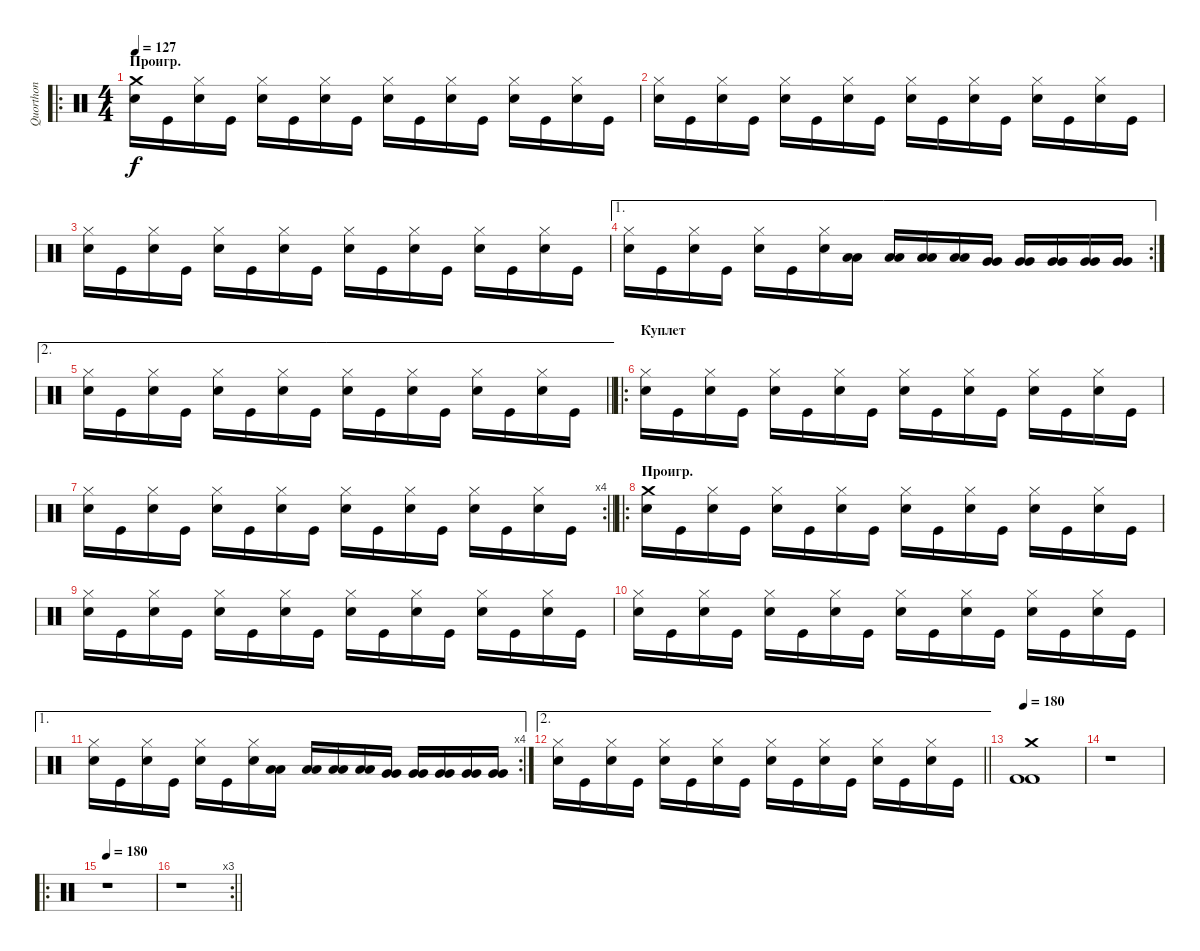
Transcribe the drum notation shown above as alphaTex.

\track ("Quorthon" "Quorthon") {instrument percussion}
\staff {score}
\articulation defaults
\ro
\ts (4 4)
\section ("" "Проигр.")
\tempo 127
\clef neutral
\ks c
("Crash medium (hit)" "Electric Snare (hit)").16{dy f} "Kick (hit)".16 ("Hi-Hat (closed)" "Electric Snare (hit)").16 "Kick (hit)".16 ("Hi-Hat (closed)" "Electric Snare (hit)").16 "Kick (hit)".16 ("Hi-Hat (closed)" "Electric Snare (hit)").16 "Kick (hit)".16 ("Hi-Hat (closed)" "Electric Snare (hit)").16 "Kick (hit)".16 ("Hi-Hat (closed)" "Electric Snare (hit)").16 "Kick (hit)".16 ("Hi-Hat (closed)" "Electric Snare (hit)").16 "Kick (hit)".16 ("Hi-Hat (closed)" "Electric Snare (hit)").16 "Kick (hit)".16 |
("Hi-Hat (closed)" "Electric Snare (hit)").16 "Kick (hit)".16 ("Hi-Hat (closed)" "Electric Snare (hit)").16 "Kick (hit)".16 ("Hi-Hat (closed)" "Electric Snare (hit)").16 "Kick (hit)".16 ("Hi-Hat (closed)" "Electric Snare (hit)").16 "Kick (hit)".16 ("Hi-Hat (closed)" "Electric Snare (hit)").16 "Kick (hit)".16 ("Hi-Hat (closed)" "Electric Snare (hit)").16 "Kick (hit)".16 ("Hi-Hat (closed)" "Electric Snare (hit)").16 "Kick (hit)".16 ("Hi-Hat (closed)" "Electric Snare (hit)").16 "Kick (hit)".16 |
("Hi-Hat (closed)" "Electric Snare (hit)").16 "Kick (hit)".16 ("Hi-Hat (closed)" "Electric Snare (hit)").16 "Kick (hit)".16 ("Hi-Hat (closed)" "Electric Snare (hit)").16 "Kick (hit)".16 ("Hi-Hat (closed)" "Electric Snare (hit)").16 "Kick (hit)".16 ("Hi-Hat (closed)" "Electric Snare (hit)").16 "Kick (hit)".16 ("Hi-Hat (closed)" "Electric Snare (hit)").16 "Kick (hit)".16 ("Hi-Hat (closed)" "Electric Snare (hit)").16 "Kick (hit)".16 ("Hi-Hat (closed)" "Electric Snare (hit)").16 "Kick (hit)".16 |
\ae 1
\rc 2
("Hi-Hat (closed)" "Electric Snare (hit)").16 "Kick (hit)".16 ("Hi-Hat (closed)" "Electric Snare (hit)").16 "Kick (hit)".16 ("Hi-Hat (closed)" "Electric Snare (hit)").16 "Kick (hit)".16 ("Hi-Hat (closed)" "Electric Snare (hit)").16 ("Low Tom (hit)" "Low Tom (hit)").16 ("Low Tom (hit)" "Low Tom (hit)").16 ("Low Tom (hit)" "Low Tom (hit)").16 ("Low Tom (hit)" "Low Tom (hit)").16 ("Very Low Tom (hit)" "Very Low Tom (hit)").16 ("Very Low Tom (hit)" "Very Low Tom (hit)").16 ("Very Low Tom (hit)" "Very Low Tom (hit)").16 ("Very Low Tom (hit)" "Very Low Tom (hit)").16 ("Very Low Tom (hit)" "Very Low Tom (hit)").16 |
\ae 2
\barLineRight lightlight
("Hi-Hat (closed)" "Electric Snare (hit)").16 "Kick (hit)".16 ("Hi-Hat (closed)" "Electric Snare (hit)").16 "Kick (hit)".16 ("Hi-Hat (closed)" "Electric Snare (hit)").16 "Kick (hit)".16 ("Hi-Hat (closed)" "Electric Snare (hit)").16 "Kick (hit)".16 ("Hi-Hat (closed)" "Electric Snare (hit)").16 "Kick (hit)".16 ("Hi-Hat (closed)" "Electric Snare (hit)").16 "Kick (hit)".16 ("Hi-Hat (closed)" "Electric Snare (hit)").16 "Kick (hit)".16 ("Hi-Hat (closed)" "Electric Snare (hit)").16 "Kick (hit)".16 |
\ro
\section ("" "Куплет")
("Hi-Hat (closed)" "Electric Snare (hit)").16 "Kick (hit)".16 ("Hi-Hat (closed)" "Electric Snare (hit)").16 "Kick (hit)".16 ("Hi-Hat (closed)" "Electric Snare (hit)").16 "Kick (hit)".16 ("Hi-Hat (closed)" "Electric Snare (hit)").16 "Kick (hit)".16 ("Hi-Hat (closed)" "Electric Snare (hit)").16 "Kick (hit)".16 ("Hi-Hat (closed)" "Electric Snare (hit)").16 "Kick (hit)".16 ("Hi-Hat (closed)" "Electric Snare (hit)").16 "Kick (hit)".16 ("Hi-Hat (closed)" "Electric Snare (hit)").16 "Kick (hit)".16 |
\rc 4
\barLineRight lightlight
("Hi-Hat (closed)" "Electric Snare (hit)").16 "Kick (hit)".16 ("Hi-Hat (closed)" "Electric Snare (hit)").16 "Kick (hit)".16 ("Hi-Hat (closed)" "Electric Snare (hit)").16 "Kick (hit)".16 ("Hi-Hat (closed)" "Electric Snare (hit)").16 "Kick (hit)".16 ("Hi-Hat (closed)" "Electric Snare (hit)").16 "Kick (hit)".16 ("Hi-Hat (closed)" "Electric Snare (hit)").16 "Kick (hit)".16 ("Hi-Hat (closed)" "Electric Snare (hit)").16 "Kick (hit)".16 ("Hi-Hat (closed)" "Electric Snare (hit)").16 "Kick (hit)".16 |
\ro
\section ("" "Проигр.")
("Crash medium (hit)" "Electric Snare (hit)").16 "Kick (hit)".16 ("Hi-Hat (closed)" "Electric Snare (hit)").16 "Kick (hit)".16 ("Hi-Hat (closed)" "Electric Snare (hit)").16 "Kick (hit)".16 ("Hi-Hat (closed)" "Electric Snare (hit)").16 "Kick (hit)".16 ("Hi-Hat (closed)" "Electric Snare (hit)").16 "Kick (hit)".16 ("Hi-Hat (closed)" "Electric Snare (hit)").16 "Kick (hit)".16 ("Hi-Hat (closed)" "Electric Snare (hit)").16 "Kick (hit)".16 ("Hi-Hat (closed)" "Electric Snare (hit)").16 "Kick (hit)".16 |
("Hi-Hat (closed)" "Electric Snare (hit)").16 "Kick (hit)".16 ("Hi-Hat (closed)" "Electric Snare (hit)").16 "Kick (hit)".16 ("Hi-Hat (closed)" "Electric Snare (hit)").16 "Kick (hit)".16 ("Hi-Hat (closed)" "Electric Snare (hit)").16 "Kick (hit)".16 ("Hi-Hat (closed)" "Electric Snare (hit)").16 "Kick (hit)".16 ("Hi-Hat (closed)" "Electric Snare (hit)").16 "Kick (hit)".16 ("Hi-Hat (closed)" "Electric Snare (hit)").16 "Kick (hit)".16 ("Hi-Hat (closed)" "Electric Snare (hit)").16 "Kick (hit)".16 |
("Hi-Hat (closed)" "Electric Snare (hit)").16 "Kick (hit)".16 ("Hi-Hat (closed)" "Electric Snare (hit)").16 "Kick (hit)".16 ("Hi-Hat (closed)" "Electric Snare (hit)").16 "Kick (hit)".16 ("Hi-Hat (closed)" "Electric Snare (hit)").16 "Kick (hit)".16 ("Hi-Hat (closed)" "Electric Snare (hit)").16 "Kick (hit)".16 ("Hi-Hat (closed)" "Electric Snare (hit)").16 "Kick (hit)".16 ("Hi-Hat (closed)" "Electric Snare (hit)").16 "Kick (hit)".16 ("Hi-Hat (closed)" "Electric Snare (hit)").16 "Kick (hit)".16 |
\ae 1
\rc 4
("Hi-Hat (closed)" "Electric Snare (hit)").16 "Kick (hit)".16 ("Hi-Hat (closed)" "Electric Snare (hit)").16 "Kick (hit)".16 ("Hi-Hat (closed)" "Electric Snare (hit)").16 "Kick (hit)".16 ("Hi-Hat (closed)" "Electric Snare (hit)").16 ("Low Tom (hit)" "Low Tom (hit)").16 ("Low Tom (hit)" "Low Tom (hit)").16 ("Low Tom (hit)" "Low Tom (hit)").16 ("Low Tom (hit)" "Low Tom (hit)").16 ("Very Low Tom (hit)" "Very Low Tom (hit)").16 ("Very Low Tom (hit)" "Very Low Tom (hit)").16 ("Very Low Tom (hit)" "Very Low Tom (hit)").16 ("Very Low Tom (hit)" "Very Low Tom (hit)").16 ("Very Low Tom (hit)" "Very Low Tom (hit)").16 |
\ae 2
\barLineRight lightlight
("Hi-Hat (closed)" "Electric Snare (hit)").16 "Kick (hit)".16 ("Hi-Hat (closed)" "Electric Snare (hit)").16 "Kick (hit)".16 ("Hi-Hat (closed)" "Electric Snare (hit)").16 "Kick (hit)".16 ("Hi-Hat (closed)" "Electric Snare (hit)").16 "Kick (hit)".16 ("Hi-Hat (closed)" "Electric Snare (hit)").16 "Kick (hit)".16 ("Hi-Hat (closed)" "Electric Snare (hit)").16 "Kick (hit)".16 ("Hi-Hat (closed)" "Electric Snare (hit)").16 "Kick (hit)".16 ("Hi-Hat (closed)" "Electric Snare (hit)").16 "Kick (hit)".16 |
\tempo 180
("Crash medium (hit)" "Kick (hit) 2" "Kick (hit) 2").1 |
r.1 |
\ro
\tempo 180
r.1 |
\rc 3
\barLineRight lightlight
r.1
